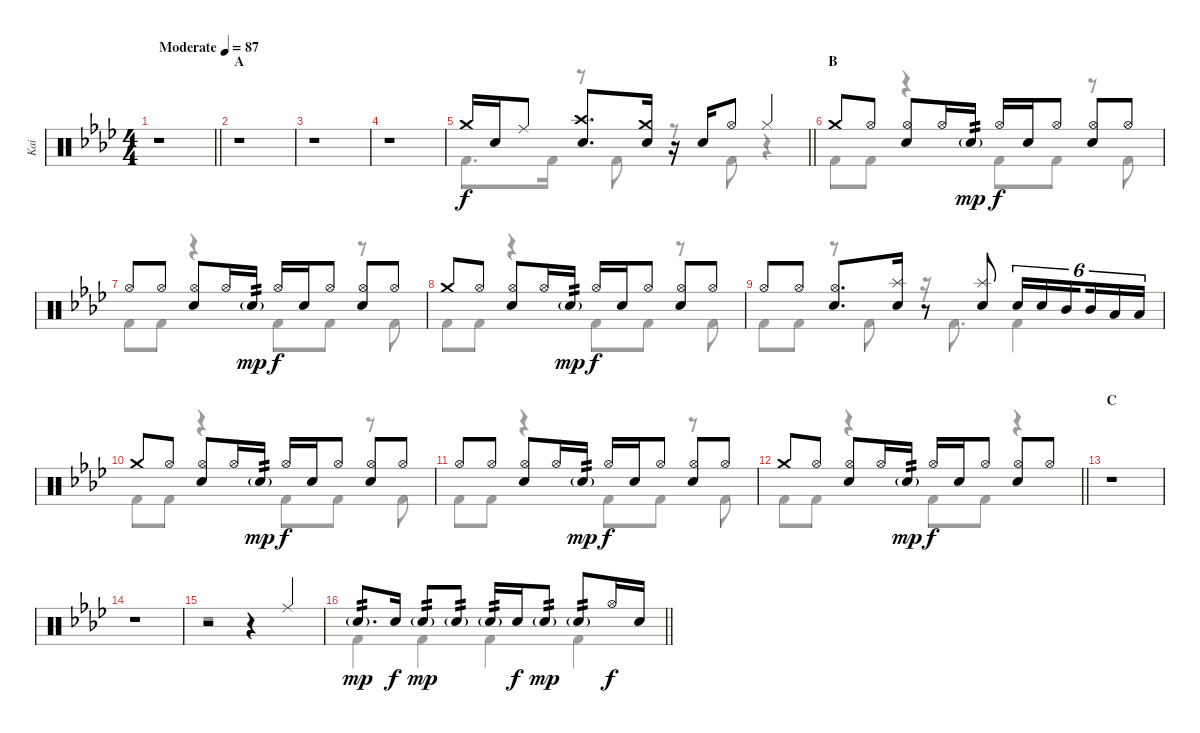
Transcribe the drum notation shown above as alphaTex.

\track ("Kai" "Kai") {instrument percussion}
\staff {score}
\articulation defaults
\voice
\ts (4 4)
\tempo (87 "Moderate")
\clef neutral
\barLineRight lightlight
\ks ab
r.1{dy f} |
\section ("" "A")
r.1 |
r.1 |
r.1 |
\barLineRight lightlight "Crash medium (hit)".16 "Snare (hit) 2".16 "Ride (middle)".8
("Crash high (hit)" "Snare (hit) 2").8{d} ("Crash medium (hit)" "Snare (hit) 2").16 r.16 "Snare (hit) 2".16 "Hi-Hat (open)".8 "Hi-Hat (closed)".4 |
\section ("" "B")
"Crash medium (hit)".8{volume 13} "Hi-Hat (open)".8 ("Hi-Hat (open)" "Snare (hit) 2").8 "Hi-Hat (open)".16 "Snare (hit) 2"{g}.16{tp 2 dy mp} "Hi-Hat (open)".16{dy f} "Snare (hit) 2".16 "Hi-Hat (open)".8 ("Hi-Hat (open)" "Snare (hit) 2").8 "Hi-Hat (open)".8 |
"Hi-Hat (open)".8 "Hi-Hat (open)".8 ("Hi-Hat (open)" "Snare (hit) 2").8 "Hi-Hat (open)".16 "Snare (hit) 2"{g}.16{tp 2 dy mp} "Hi-Hat (open)".16{dy f} "Snare (hit) 2".16 "Hi-Hat (open)".8 ("Hi-Hat (open)" "Snare (hit) 2").8 "Hi-Hat (open)".8 |
"Crash medium (hit)".8 "Hi-Hat (open)".8 ("Hi-Hat (open)" "Snare (hit) 2").8 "Hi-Hat (open)".16 "Snare (hit) 2"{g}.16{tp 2 dy mp} "Hi-Hat (open)".16{dy f} "Snare (hit) 2".16 "Hi-Hat (open)".8 ("Hi-Hat (open)" "Snare (hit) 2").8 "Hi-Hat (open)".8 |
"Hi-Hat (open)".8 "Hi-Hat (open)".8 ("Hi-Hat (open)" "Snare (hit) 2").8{d} ("Splash (hit)" "Snare (hit) 2").16 r.8 ("Splash (hit)" "Snare (hit) 2").8 "Snare (hit) 2".16{tu (6 4)} "Snare (hit) 2".16{tu (6 4)} "Mid Tom (hit)".16{tu (6 4) beam splitsecondary} "Mid Tom (hit)".16{tu (6 4)} "Low Tom (hit)".16{tu (6 4)} "Low Tom (hit)".16{tu (6 4)} |
"Crash medium (hit)".8 "Hi-Hat (open)".8 ("Hi-Hat (open)" "Snare (hit) 2").8 "Hi-Hat (open)".16 "Snare (hit) 2"{g}.16{tp 2 dy mp} "Hi-Hat (open)".16{dy f} "Snare (hit) 2".16 "Hi-Hat (open)".8 ("Hi-Hat (open)" "Snare (hit) 2").8 "Hi-Hat (open)".8 |
"Hi-Hat (open)".8 "Hi-Hat (open)".8 ("Hi-Hat (open)" "Snare (hit) 2").8 "Hi-Hat (open)".16 "Snare (hit) 2"{g}.16{tp 2 dy mp} "Hi-Hat (open)".16{dy f} "Snare (hit) 2".16 "Hi-Hat (open)".8 ("Hi-Hat (open)" "Snare (hit) 2").8 "Hi-Hat (open)".8 |
\barLineRight lightlight "Crash medium (hit)".8 "Hi-Hat (open)".8
("Hi-Hat (open)" "Snare (hit) 2").8 "Hi-Hat (open)".16 "Snare (hit) 2"{g}.16{tp 2 dy mp} "Hi-Hat (open)".16{dy f} "Snare (hit) 2".16 "Hi-Hat (open)".8 ("Hi-Hat (open)" "Snare (hit) 2").8 "Hi-Hat (open)".8 |
\section ("" "C")
r.1 |
r.1 |
r.2 r.4 "Ride (middle)".4 |
\barLineRight lightlight "Snare (hit) 2"{g}.8{d tp 2 dy mp} "Snare (hit) 2".16{dy f} "Snare (hit) 2"{g}.8{tp 2 dy mp} "Snare (hit) 2"{g}.8{tp 2} "Snare (hit) 2"{g}.16{tp 2} "Snare (hit) 2".16{dy f} "Snare (hit) 2"{g}.8{tp 2 dy mp} "Snare (hit) 2"{g}.8{tp 2} "Hi-Hat (open)".16{dy f} "Snare (hit) 2".16
\voice
\clef neutral
\ottava regular
\simile none
\barLineRight lightlight
\ks ab
|
|
|
|
\barLineRight lightlight "Kick (hit) 2".8{d} "Kick (hit) 2".16
r.8 "Kick (hit) 2".8 r.8 "Kick (hit) 2".8 r.4 |
"Kick (hit) 2".8 "Kick (hit) 2".8 r.4 "Kick (hit) 2".8 "Kick (hit) 2".8 r.8 "Kick (hit) 2".8 |
"Kick (hit) 2".8 "Kick (hit) 2".8 r.4 "Kick (hit) 2".8 "Kick (hit) 2".8 r.8 "Kick (hit) 2".8 |
"Kick (hit) 2".8 "Kick (hit) 2".8 r.4 "Kick (hit) 2".8 "Kick (hit) 2".8 r.8 "Kick (hit) 2".8 |
"Kick (hit) 2".8 "Kick (hit) 2".8 r.8 "Kick (hit) 2".8 r.16 "Kick (hit) 2".8{d} "Kick (hit) 2".4 |
"Kick (hit) 2".8 "Kick (hit) 2".8 r.4 "Kick (hit) 2".8 "Kick (hit) 2".8 r.8 "Kick (hit) 2".8 |
"Kick (hit) 2".8 "Kick (hit) 2".8 r.4 "Kick (hit) 2".8 "Kick (hit) 2".8 r.8 "Kick (hit) 2".8 |
\barLineRight lightlight "Kick (hit) 2".8 "Kick (hit) 2".8
r.4 "Kick (hit) 2".8 "Kick (hit) 2".8 r.4 |
|
|
r.1 |
\barLineRight lightlight "Kick (hit) 2".4 "Kick (hit) 2".4 "Kick (hit) 2".4 "Kick (hit) 2".4
